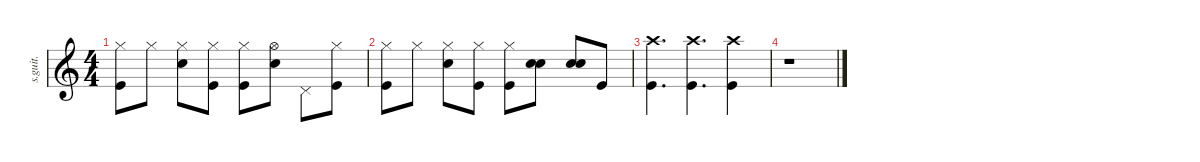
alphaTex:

\defaultSystemsLayout 4
\hideDynamics
\bracketExtendMode nobrackets
\track ("Dave Grohl" "s.guit.") {instrument percussion}
\staff {score}
\articulation defaults
\ts (4 4)
\tempo (136 hide)
\clef g2
\ks c
("Hi-Hat (closed)" "Kick (hit)").8{dy f} "Hi-Hat (closed)".8{dy ppp} ("Hi-Hat (closed)" "Snare (hit) 2").8{dy f} ("Hi-Hat (closed)" "Kick (hit)").8 ("Hi-Hat (closed)" "Kick (hit)").8 ("Hi-Hat (open)" "Snare (hit) 2").8 "Pedal Hi-Hat (hit)".8 ("Hi-Hat (closed)" "Kick (hit)").8 |
("Hi-Hat (closed)" "Kick (hit)").8 "Hi-Hat (closed)".8{dy ppp} ("Hi-Hat (closed)" "Snare (hit) 2").8{dy f} ("Hi-Hat (closed)" "Kick (hit)").8 ("Hi-Hat (closed)" "Kick (hit)").8 ("Snare (hit) 2" "Snare (hit) 2").8{bd 30} ("Snare (hit) 2" "Snare (hit) 2").8{bd 30} "Kick (hit)".8 |
("Crash high (hit)" "Kick (hit)").4{d} ("Crash high (hit)" "Kick (hit)").4{d} ("Crash high (hit)" "Kick (hit)").4 |
r.1
